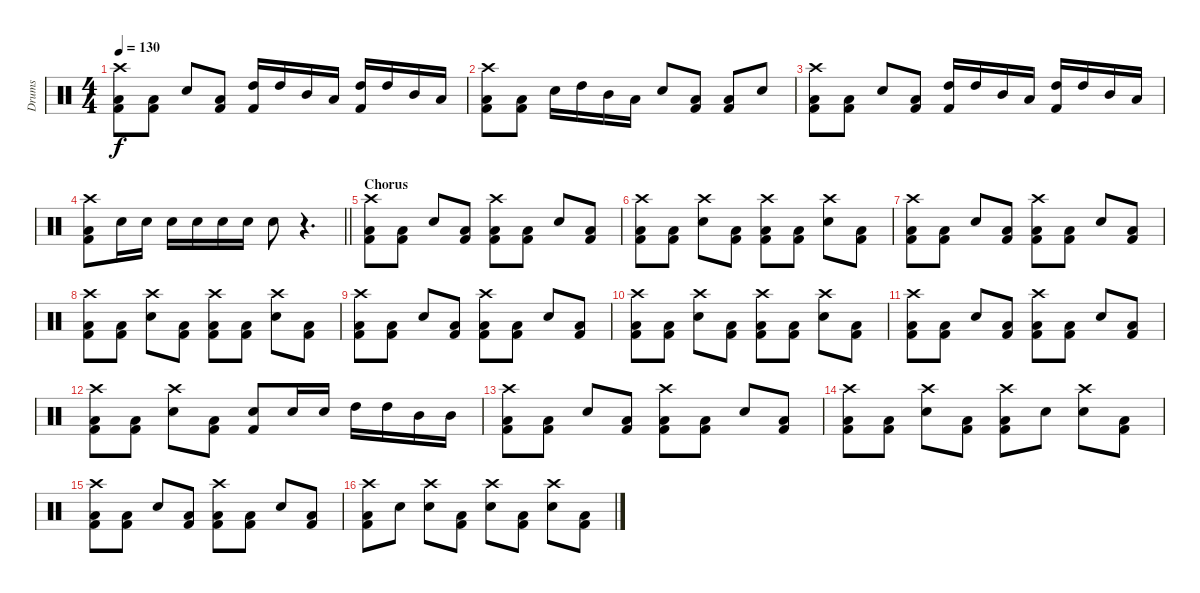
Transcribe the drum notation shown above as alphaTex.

\track ("Drums" "Drums") {instrument percussion}
\staff {score}
\articulation defaults
\ts (4 4)
\tempo 130
\clef neutral
\ks c
("Kick (hit) 2" "Low Floor Tom (hit)" "Crash high (hit)").8{dy f} ("Kick (hit) 2" "Low Floor Tom (hit)").8 "Electric Snare (hit)".8 ("Kick (hit) 2" "Low Floor Tom (hit)").8 ("Kick (hit) 2" "High Tom (hit)").16 "High Tom (hit)".16 "Mid Tom (hit)".16 "Low Floor Tom (hit)".16 ("Kick (hit) 2" "High Tom (hit)").16 "High Tom (hit)".16 "Mid Tom (hit)".16 "Low Floor Tom (hit)".16 |
("Kick (hit) 2" "Low Floor Tom (hit)" "Crash high (hit)").8 ("Kick (hit) 2" "Low Floor Tom (hit)").8 "Electric Snare (hit)".16 "High Tom (hit)".16 "Mid Tom (hit)".16 "Low Floor Tom (hit)".16 "Electric Snare (hit)".8 ("Kick (hit) 2" "Low Floor Tom (hit)").8 ("Kick (hit) 2" "Low Floor Tom (hit)").8 "Electric Snare (hit)".8 |
("Kick (hit) 2" "Low Floor Tom (hit)" "Crash high (hit)").8 ("Kick (hit) 2" "Low Floor Tom (hit)").8 "Electric Snare (hit)".8 ("Kick (hit) 2" "Low Floor Tom (hit)").8 ("Kick (hit) 2" "High Tom (hit)").16 "High Tom (hit)".16 "Mid Tom (hit)".16 "Low Floor Tom (hit)".16 ("Kick (hit) 2" "High Tom (hit)").16 "High Tom (hit)".16 "Mid Tom (hit)".16 "Low Floor Tom (hit)".16 |
\barLineRight lightlight
("Kick (hit) 2" "Low Floor Tom (hit)" "Crash high (hit)").8 "Electric Snare (hit)".16 "Electric Snare (hit)".16 "Electric Snare (hit)".16 "Electric Snare (hit)".16 "Electric Snare (hit)".16 "Electric Snare (hit)".16 "Electric Snare (hit)".8 r.4{d} |
\section ("" "Chorus")
("Kick (hit) 2" "Low Floor Tom (hit)" "Crash high (hit)").8 ("Kick (hit) 2" "Low Floor Tom (hit)").8 "Electric Snare (hit)".8 ("Kick (hit) 2" "Low Floor Tom (hit)").8 ("Kick (hit) 2" "Low Floor Tom (hit)" "Crash high (hit)").8 ("Kick (hit) 2" "Low Floor Tom (hit)").8 "Electric Snare (hit)".8 ("Kick (hit) 2" "Low Floor Tom (hit)").8 |
("Kick (hit) 2" "Low Floor Tom (hit)" "Crash high (hit)").8 ("Kick (hit) 2" "Low Floor Tom (hit)").8 ("Electric Snare (hit)" "Crash high (hit)").8 ("Kick (hit) 2" "Low Floor Tom (hit)").8 ("Kick (hit) 2" "Low Floor Tom (hit)" "Crash high (hit)").8 ("Kick (hit) 2" "Low Floor Tom (hit)").8 ("Electric Snare (hit)" "Crash high (hit)").8 ("Kick (hit) 2" "Low Floor Tom (hit)").8 |
("Kick (hit) 2" "Low Floor Tom (hit)" "Crash high (hit)").8 ("Kick (hit) 2" "Low Floor Tom (hit)").8 "Electric Snare (hit)".8 ("Kick (hit) 2" "Low Floor Tom (hit)").8 ("Kick (hit) 2" "Low Floor Tom (hit)" "Crash high (hit)").8 ("Kick (hit) 2" "Low Floor Tom (hit)").8 "Electric Snare (hit)".8 ("Kick (hit) 2" "Low Floor Tom (hit)").8 |
("Kick (hit) 2" "Low Floor Tom (hit)" "Crash high (hit)").8 ("Kick (hit) 2" "Low Floor Tom (hit)").8 ("Electric Snare (hit)" "Crash high (hit)").8 ("Kick (hit) 2" "Low Floor Tom (hit)").8 ("Kick (hit) 2" "Low Floor Tom (hit)" "Crash high (hit)").8 ("Kick (hit) 2" "Low Floor Tom (hit)").8 ("Electric Snare (hit)" "Crash high (hit)").8 ("Kick (hit) 2" "Low Floor Tom (hit)").8 |
("Kick (hit) 2" "Low Floor Tom (hit)" "Crash high (hit)").8 ("Kick (hit) 2" "Low Floor Tom (hit)").8 "Electric Snare (hit)".8 ("Kick (hit) 2" "Low Floor Tom (hit)").8 ("Kick (hit) 2" "Low Floor Tom (hit)" "Crash high (hit)").8 ("Kick (hit) 2" "Low Floor Tom (hit)").8 "Electric Snare (hit)".8 ("Kick (hit) 2" "Low Floor Tom (hit)").8 |
("Kick (hit) 2" "Low Floor Tom (hit)" "Crash high (hit)").8 ("Kick (hit) 2" "Low Floor Tom (hit)").8 ("Electric Snare (hit)" "Crash high (hit)").8 ("Kick (hit) 2" "Low Floor Tom (hit)").8 ("Kick (hit) 2" "Low Floor Tom (hit)" "Crash high (hit)").8 ("Kick (hit) 2" "Low Floor Tom (hit)").8 ("Electric Snare (hit)" "Crash high (hit)").8 ("Kick (hit) 2" "Low Floor Tom (hit)").8 |
("Kick (hit) 2" "Low Floor Tom (hit)" "Crash high (hit)").8 ("Kick (hit) 2" "Low Floor Tom (hit)").8 "Electric Snare (hit)".8 ("Kick (hit) 2" "Low Floor Tom (hit)").8 ("Kick (hit) 2" "Low Floor Tom (hit)" "Crash high (hit)").8 ("Kick (hit) 2" "Low Floor Tom (hit)").8 "Electric Snare (hit)".8 ("Kick (hit) 2" "Low Floor Tom (hit)").8 |
("Kick (hit) 2" "Low Floor Tom (hit)" "Crash high (hit)").8 ("Kick (hit) 2" "Low Floor Tom (hit)").8 ("Electric Snare (hit)" "Crash high (hit)").8 ("Kick (hit) 2" "Low Floor Tom (hit)").8 ("Kick (hit) 2" "Electric Snare (hit)").8 "Electric Snare (hit)".16 "Electric Snare (hit)".16 "High Tom (hit)".16 "High Tom (hit)".16 "Mid Tom (hit)".16 "Mid Tom (hit)".16 |
("Kick (hit) 2" "Low Floor Tom (hit)" "Crash high (hit)").8 ("Kick (hit) 2" "Low Floor Tom (hit)").8 "Electric Snare (hit)".8 ("Kick (hit) 2" "Low Floor Tom (hit)").8 ("Kick (hit) 2" "Low Floor Tom (hit)" "Crash high (hit)").8 ("Kick (hit) 2" "Low Floor Tom (hit)").8 "Electric Snare (hit)".8 ("Kick (hit) 2" "Low Floor Tom (hit)").8 |
("Kick (hit) 2" "Low Floor Tom (hit)" "Crash high (hit)").8 ("Kick (hit) 2" "Low Floor Tom (hit)").8 ("Electric Snare (hit)" "Crash high (hit)").8 ("Kick (hit) 2" "Low Floor Tom (hit)").8 ("Kick (hit) 2" "Low Floor Tom (hit)" "Crash high (hit)").8 "Electric Snare (hit)".8 ("Electric Snare (hit)" "Crash high (hit)").8 ("Kick (hit) 2" "Low Floor Tom (hit)").8 |
("Kick (hit) 2" "Low Floor Tom (hit)" "Crash high (hit)").8 ("Kick (hit) 2" "Low Floor Tom (hit)").8 "Electric Snare (hit)".8 ("Kick (hit) 2" "Low Floor Tom (hit)").8 ("Kick (hit) 2" "Low Floor Tom (hit)" "Crash high (hit)").8 ("Kick (hit) 2" "Low Floor Tom (hit)").8 "Electric Snare (hit)".8 ("Kick (hit) 2" "Low Floor Tom (hit)").8 |
("Kick (hit) 2" "Low Floor Tom (hit)" "Crash high (hit)").8 "Electric Snare (hit)".8 ("Electric Snare (hit)" "Crash high (hit)").8 ("Kick (hit) 2" "Low Floor Tom (hit)").8 ("Electric Snare (hit)" "Crash high (hit)").8 ("Kick (hit) 2" "Low Floor Tom (hit)").8 ("Electric Snare (hit)" "Crash high (hit)").8 ("Kick (hit) 2" "Low Floor Tom (hit)").8
